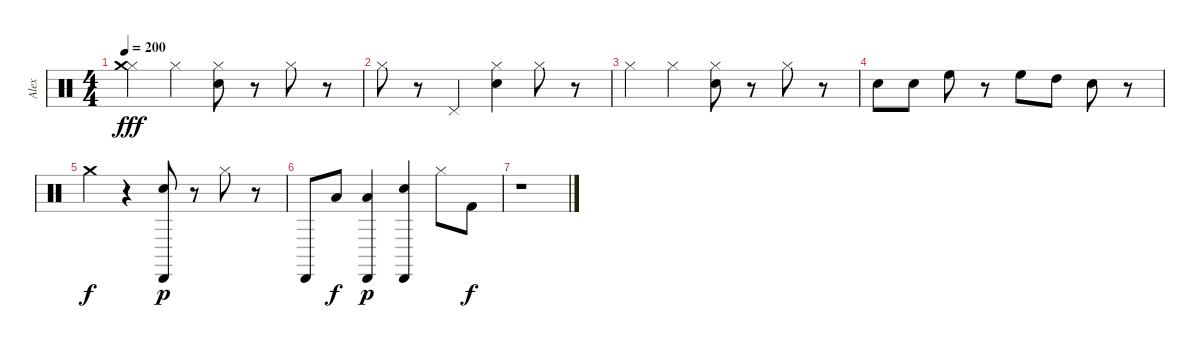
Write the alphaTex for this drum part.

\track ("Alex" "Alex") {instrument percussion}
\staff {score}
\articulation defaults
\ts (4 4)
\tempo 200
\clef neutral
\ks c
("Hi-Hat (closed)" "Crash medium (hit)").4{dy fff} "Hi-Hat (closed)".4 ("Electric Snare (hit)" "Hi-Hat (closed)").8 r.8 "Hi-Hat (closed)".8 r.8 |
"Hi-Hat (closed)".8 r.8 "Pedal Hi-Hat (hit)".4 ("Electric Snare (hit)" "Hi-Hat (closed)").4 "Hi-Hat (closed)".8 r.8 |
"Hi-Hat (closed)".4 "Hi-Hat (closed)".4 ("Electric Snare (hit)" "Hi-Hat (closed)").8 r.8 "Hi-Hat (closed)".8 r.8 |
"Electric Snare (hit)".8 "Electric Snare (hit)".8 "High Floor Tom (hit)".8 r.8 "High Floor Tom (hit)".8 "High Tom (hit)".8 "Snare (hit) 2".8 r.8 |
"Crash medium (hit)".4{dy f} r.4 ("Electric Snare (hit)" "Cabasa (hit)").8{dy p} r.8 "Hi-Hat (closed)".8 r.8 |
"Cabasa (hit)".8 "Low Floor Tom (hit)".8{dy f} ("Low Floor Tom (hit)" "Cabasa (hit)").4{dy p} ("Electric Snare (hit)" "Cabasa (hit)").4 "Hi-Hat (closed)".8 "Kick (hit) 2".8{dy f} |
r.1
